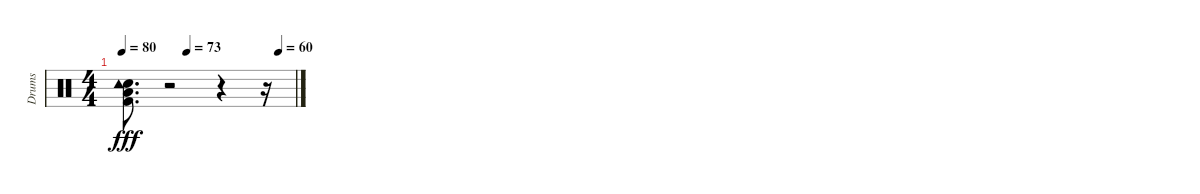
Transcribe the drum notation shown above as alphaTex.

\track ("Drums" "Drums") {instrument percussion}
\staff {score}
\articulation defaults
\ts (4 4)
\tempo 80
\tempo (73 0.375)
\tempo (60 0.90625)
\clef neutral
\ks c
("Snare (hit) 2" "Kick (hit) 2" "Low Floor Tom (hit)" "Tambourine (hit)").8{d dy fff} r.2 r.4 r.16
